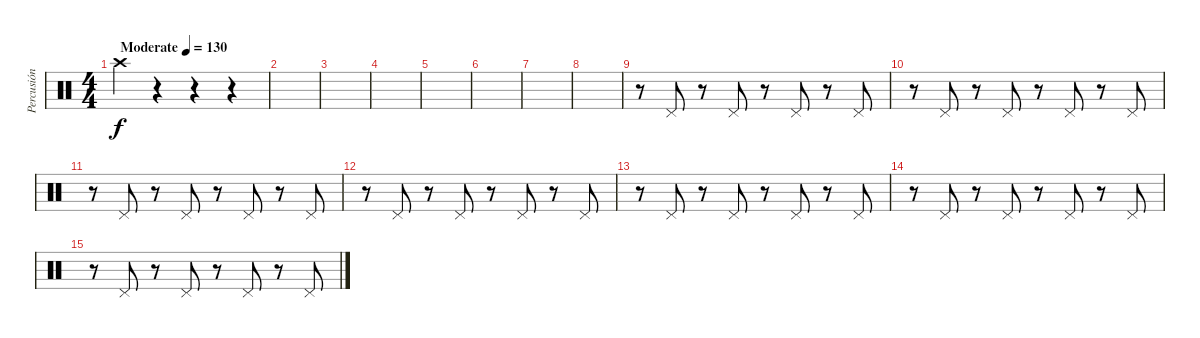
\track ("Percusión" "Percusión") {instrument percussion}
\staff {score}
\articulation defaults
\ts (4 4)
\tempo (130 "Moderate")
\clef neutral
\ks c "Crash high (hit)".4{dy f}
r.4 r.4 r.4 |
|
|
|
|
|
|
|
r.8 "Pedal Hi-Hat (hit)".8 r.8 "Pedal Hi-Hat (hit)".8 r.8 "Pedal Hi-Hat (hit)".8 r.8 "Pedal Hi-Hat (hit)".8 |
r.8 "Pedal Hi-Hat (hit)".8 r.8 "Pedal Hi-Hat (hit)".8 r.8 "Pedal Hi-Hat (hit)".8 r.8 "Pedal Hi-Hat (hit)".8 |
r.8 "Pedal Hi-Hat (hit)".8 r.8 "Pedal Hi-Hat (hit)".8 r.8 "Pedal Hi-Hat (hit)".8 r.8 "Pedal Hi-Hat (hit)".8 |
r.8 "Pedal Hi-Hat (hit)".8 r.8 "Pedal Hi-Hat (hit)".8 r.8 "Pedal Hi-Hat (hit)".8 r.8 "Pedal Hi-Hat (hit)".8 |
r.8 "Pedal Hi-Hat (hit)".8 r.8 "Pedal Hi-Hat (hit)".8 r.8 "Pedal Hi-Hat (hit)".8 r.8 "Pedal Hi-Hat (hit)".8 |
r.8 "Pedal Hi-Hat (hit)".8 r.8 "Pedal Hi-Hat (hit)".8 r.8 "Pedal Hi-Hat (hit)".8 r.8 "Pedal Hi-Hat (hit)".8 |
r.8 "Pedal Hi-Hat (hit)".8 r.8 "Pedal Hi-Hat (hit)".8 r.8 "Pedal Hi-Hat (hit)".8 r.8 "Pedal Hi-Hat (hit)".8
